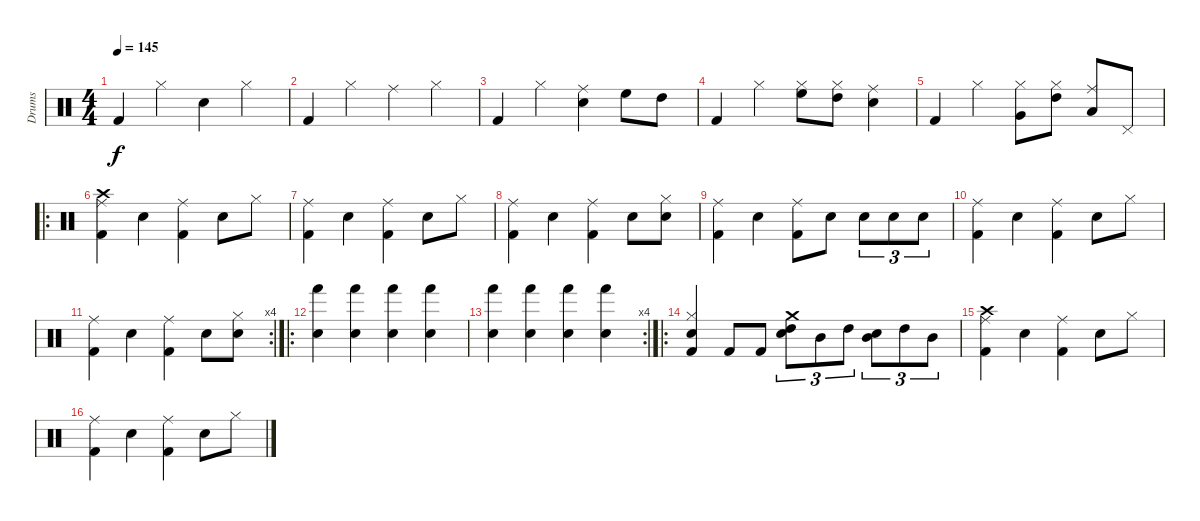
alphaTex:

\track ("Drums" "Drums") {instrument percussion}
\staff {score}
\articulation defaults
\ts (4 4)
\tempo 145
\clef neutral
\ks c "Kick (hit) 2".4{dy f} "Hi-Hat (closed)".4 "Electric Snare (hit)".4 "Hi-Hat (closed)".4
|
"Kick (hit) 2".4 "Hi-Hat (closed)".4 "Ride (middle)".4 "Hi-Hat (closed)".4 |
"Kick (hit) 2".4 "Hi-Hat (closed)".4 ("Electric Snare (hit)" "Ride (middle)").4 "High Floor Tom (hit)".8 "High Tom (hit)".8 |
"Kick (hit) 2".4 "Hi-Hat (closed)".4 ("Hi-Hat (closed)" "High Floor Tom (hit)").8 ("Hi-Hat (closed)" "High Tom (hit)").8 ("Ride (middle)" "Electric Snare (hit)").4 |
"Kick (hit) 2".4 "Hi-Hat (closed)".4 ("Hi-Hat (closed)" "Very Low Tom (hit)").8 ("Hi-Hat (closed)" "High Tom (hit)").8 ("Ride (middle)" "Low Tom (hit)").8 "Pedal Hi-Hat (hit)".8 |
\ro
("Ride (middle)" "Crash high (hit)" "Kick (hit) 2").4 "Electric Snare (hit)".4 ("Ride (middle)" "Kick (hit) 2").4 "Electric Snare (hit)".8 "Hi-Hat (closed)".8 |
("Ride (middle)" "Kick (hit) 2").4 "Electric Snare (hit)".4 ("Ride (middle)" "Kick (hit) 2").4 "Electric Snare (hit)".8 "Hi-Hat (closed)".8 |
("Ride (middle)" "Kick (hit) 2").4 "Electric Snare (hit)".4 ("Ride (middle)" "Kick (hit) 2").4 "Electric Snare (hit)".8 ("Hi-Hat (closed)" "Electric Snare (hit)").8 |
("Ride (middle)" "Kick (hit) 2").4 "Electric Snare (hit)".4 ("Ride (middle)" "Kick (hit) 2").8 "Electric Snare (hit)".8 "Electric Snare (hit)".8{tu (3 2)} "Electric Snare (hit)".8{tu (3 2)} "Electric Snare (hit)".8{tu (3 2)} |
("Ride (middle)" "Kick (hit) 2").4 "Electric Snare (hit)".4 ("Ride (middle)" "Kick (hit) 2").4 "Electric Snare (hit)".8 "Hi-Hat (closed)".8 |
\rc 4
("Ride (middle)" "Kick (hit) 2").4 "Electric Snare (hit)".4 ("Ride (middle)" "Kick (hit) 2").4 "Electric Snare (hit)".8 ("Hi-Hat (closed)" "Electric Snare (hit)").8 |
\ro
("Electric Snare (hit)" "Hand (hit)").4 ("Electric Snare (hit)" "Hand (hit)").4 ("Electric Snare (hit)" "Hand (hit)").4 ("Electric Snare (hit)" "Hand (hit)").4 |
\rc 4
("Electric Snare (hit)" "Hand (hit)").4 ("Electric Snare (hit)" "Hand (hit)").4 ("Electric Snare (hit)" "Hand (hit)").4 ("Electric Snare (hit)" "Hand (hit)").4 |
\ro
("Hi-Hat (closed)" "Electric Snare (hit)" "Kick (hit) 2").4 "Kick (hit) 2".8 "Kick (hit) 2".8 ("Electric Snare (hit)" "High Tom (hit)" "Crash medium (hit)").8{tu (3 2)} "Mid Tom (hit)".8{tu (3 2)} "High Tom (hit)".8{tu (3 2)} ("Electric Snare (hit)" "Mid Tom (hit)").8{tu (3 2)} "High Tom (hit)".8{tu (3 2)} "Mid Tom (hit)".8{tu (3 2)} |
("Ride (middle)" "Crash high (hit)" "Kick (hit) 2").4 "Electric Snare (hit)".4 ("Ride (middle)" "Kick (hit) 2").4 "Electric Snare (hit)".8 "Hi-Hat (closed)".8 |
("Ride (middle)" "Kick (hit) 2").4 "Electric Snare (hit)".4 ("Ride (middle)" "Kick (hit) 2").4 "Electric Snare (hit)".8 "Hi-Hat (closed)".8
